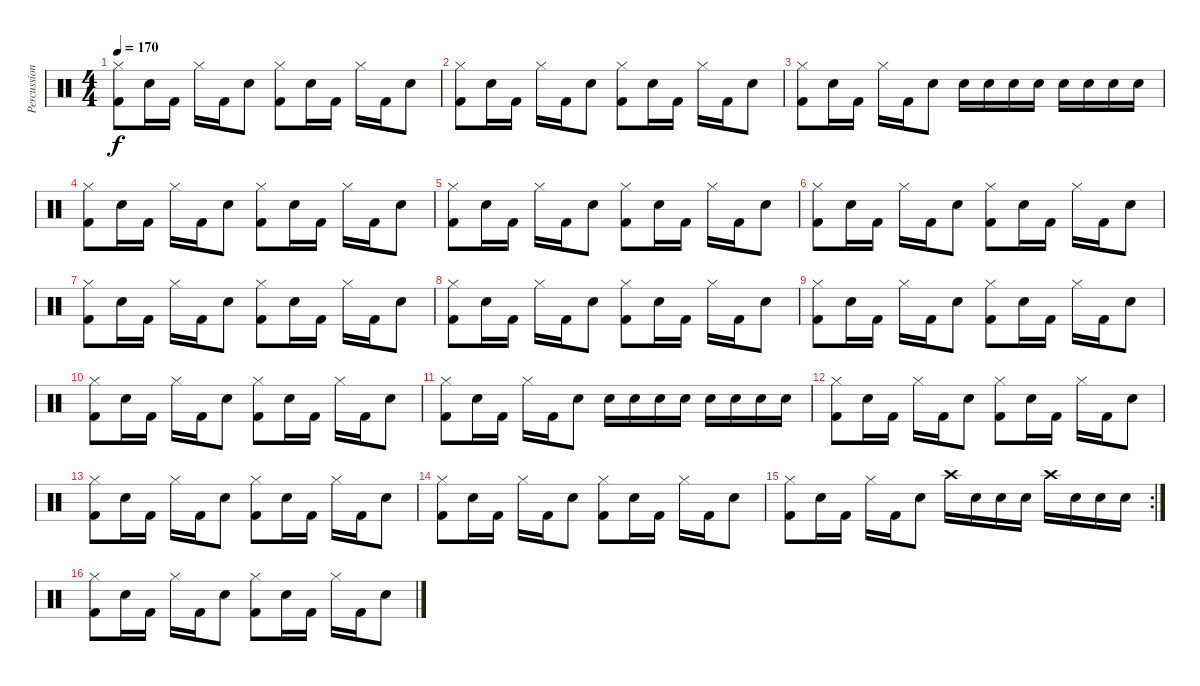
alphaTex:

\track ("Percussions" "Percussion") {instrument percussion}
\staff {score}
\articulation defaults
\ts (4 4)
\tempo 170
\clef neutral
\ks c
("Hi-Hat (closed)" "Kick (hit) 2").8{dy f} "Snare (hit) 2".16 "Kick (hit) 2".16 "Hi-Hat (closed)".16 "Kick (hit) 2".16 "Snare (hit) 2".8 ("Hi-Hat (closed)" "Kick (hit) 2").8 "Snare (hit) 2".16 "Kick (hit) 2".16 "Hi-Hat (closed)".16 "Kick (hit) 2".16 "Snare (hit) 2".8 |
("Hi-Hat (closed)" "Kick (hit) 2").8 "Snare (hit) 2".16 "Kick (hit) 2".16 "Hi-Hat (closed)".16 "Kick (hit) 2".16 "Snare (hit) 2".8 ("Hi-Hat (closed)" "Kick (hit) 2").8 "Snare (hit) 2".16 "Kick (hit) 2".16 "Hi-Hat (closed)".16 "Kick (hit) 2".16 "Snare (hit) 2".8 |
("Hi-Hat (closed)" "Kick (hit) 2").8 "Snare (hit) 2".16 "Kick (hit) 2".16 "Hi-Hat (closed)".16 "Kick (hit) 2".16 "Snare (hit) 2".8 "Snare (hit) 2".16 "Snare (hit) 2".16 "Snare (hit) 2".16 "Snare (hit) 2".16 "Snare (hit) 2".16 "Snare (hit) 2".16 "Snare (hit) 2".16 "Snare (hit) 2".16 |
("Hi-Hat (closed)" "Kick (hit) 2").8 "Snare (hit) 2".16 "Kick (hit) 2".16 "Hi-Hat (closed)".16 "Kick (hit) 2".16 "Snare (hit) 2".8 ("Hi-Hat (closed)" "Kick (hit) 2").8 "Snare (hit) 2".16 "Kick (hit) 2".16 "Hi-Hat (closed)".16 "Kick (hit) 2".16 "Snare (hit) 2".8 |
("Hi-Hat (closed)" "Kick (hit) 2").8 "Snare (hit) 2".16 "Kick (hit) 2".16 "Hi-Hat (closed)".16 "Kick (hit) 2".16 "Snare (hit) 2".8 ("Hi-Hat (closed)" "Kick (hit) 2").8 "Snare (hit) 2".16 "Kick (hit) 2".16 "Hi-Hat (closed)".16 "Kick (hit) 2".16 "Snare (hit) 2".8 |
("Hi-Hat (closed)" "Kick (hit) 2").8 "Snare (hit) 2".16 "Kick (hit) 2".16 "Hi-Hat (closed)".16 "Kick (hit) 2".16 "Snare (hit) 2".8 ("Hi-Hat (closed)" "Kick (hit) 2").8 "Snare (hit) 2".16 "Kick (hit) 2".16 "Hi-Hat (closed)".16 "Kick (hit) 2".16 "Snare (hit) 2".8 |
("Hi-Hat (closed)" "Kick (hit) 2").8 "Snare (hit) 2".16 "Kick (hit) 2".16 "Hi-Hat (closed)".16 "Kick (hit) 2".16 "Snare (hit) 2".8 ("Hi-Hat (closed)" "Kick (hit) 2").8 "Snare (hit) 2".16 "Kick (hit) 2".16 "Hi-Hat (closed)".16 "Kick (hit) 2".16 "Snare (hit) 2".8 |
("Hi-Hat (closed)" "Kick (hit) 2").8 "Snare (hit) 2".16 "Kick (hit) 2".16 "Hi-Hat (closed)".16 "Kick (hit) 2".16 "Snare (hit) 2".8 ("Hi-Hat (closed)" "Kick (hit) 2").8 "Snare (hit) 2".16 "Kick (hit) 2".16 "Hi-Hat (closed)".16 "Kick (hit) 2".16 "Snare (hit) 2".8 |
("Hi-Hat (closed)" "Kick (hit) 2").8 "Snare (hit) 2".16 "Kick (hit) 2".16 "Hi-Hat (closed)".16 "Kick (hit) 2".16 "Snare (hit) 2".8 ("Hi-Hat (closed)" "Kick (hit) 2").8 "Snare (hit) 2".16 "Kick (hit) 2".16 "Hi-Hat (closed)".16 "Kick (hit) 2".16 "Snare (hit) 2".8 |
("Hi-Hat (closed)" "Kick (hit) 2").8 "Snare (hit) 2".16 "Kick (hit) 2".16 "Hi-Hat (closed)".16 "Kick (hit) 2".16 "Snare (hit) 2".8 ("Hi-Hat (closed)" "Kick (hit) 2").8 "Snare (hit) 2".16 "Kick (hit) 2".16 "Hi-Hat (closed)".16 "Kick (hit) 2".16 "Snare (hit) 2".8 |
("Hi-Hat (closed)" "Kick (hit) 2").8 "Snare (hit) 2".16 "Kick (hit) 2".16 "Hi-Hat (closed)".16 "Kick (hit) 2".16 "Snare (hit) 2".8 "Snare (hit) 2".16 "Snare (hit) 2".16 "Snare (hit) 2".16 "Snare (hit) 2".16 "Snare (hit) 2".16 "Snare (hit) 2".16 "Snare (hit) 2".16 "Snare (hit) 2".16 |
("Hi-Hat (closed)" "Kick (hit) 2").8 "Snare (hit) 2".16 "Kick (hit) 2".16 "Hi-Hat (closed)".16 "Kick (hit) 2".16 "Snare (hit) 2".8 ("Hi-Hat (closed)" "Kick (hit) 2").8 "Snare (hit) 2".16 "Kick (hit) 2".16 "Hi-Hat (closed)".16 "Kick (hit) 2".16 "Snare (hit) 2".8 |
("Hi-Hat (closed)" "Kick (hit) 2").8 "Snare (hit) 2".16 "Kick (hit) 2".16 "Hi-Hat (closed)".16 "Kick (hit) 2".16 "Snare (hit) 2".8 ("Hi-Hat (closed)" "Kick (hit) 2").8 "Snare (hit) 2".16 "Kick (hit) 2".16 "Hi-Hat (closed)".16 "Kick (hit) 2".16 "Snare (hit) 2".8 |
("Hi-Hat (closed)" "Kick (hit) 2").8 "Snare (hit) 2".16 "Kick (hit) 2".16 "Hi-Hat (closed)".16 "Kick (hit) 2".16 "Snare (hit) 2".8 ("Hi-Hat (closed)" "Kick (hit) 2").8 "Snare (hit) 2".16 "Kick (hit) 2".16 "Hi-Hat (closed)".16 "Kick (hit) 2".16 "Snare (hit) 2".8 |
\rc 2
("Hi-Hat (closed)" "Kick (hit) 2").8 "Snare (hit) 2".16 "Kick (hit) 2".16 "Hi-Hat (closed)".16 "Kick (hit) 2".16 "Snare (hit) 2".8 "Crash high (hit)".16 "Snare (hit) 2".16 "Snare (hit) 2".16 "Snare (hit) 2".16 "Crash high (hit)".16 "Snare (hit) 2".16 "Snare (hit) 2".16 "Snare (hit) 2".16 |
("Hi-Hat (closed)" "Kick (hit) 2").8 "Snare (hit) 2".16 "Kick (hit) 2".16 "Hi-Hat (closed)".16 "Kick (hit) 2".16 "Snare (hit) 2".8 ("Hi-Hat (closed)" "Kick (hit) 2").8 "Snare (hit) 2".16 "Kick (hit) 2".16 "Hi-Hat (closed)".16 "Kick (hit) 2".16 "Snare (hit) 2".8
